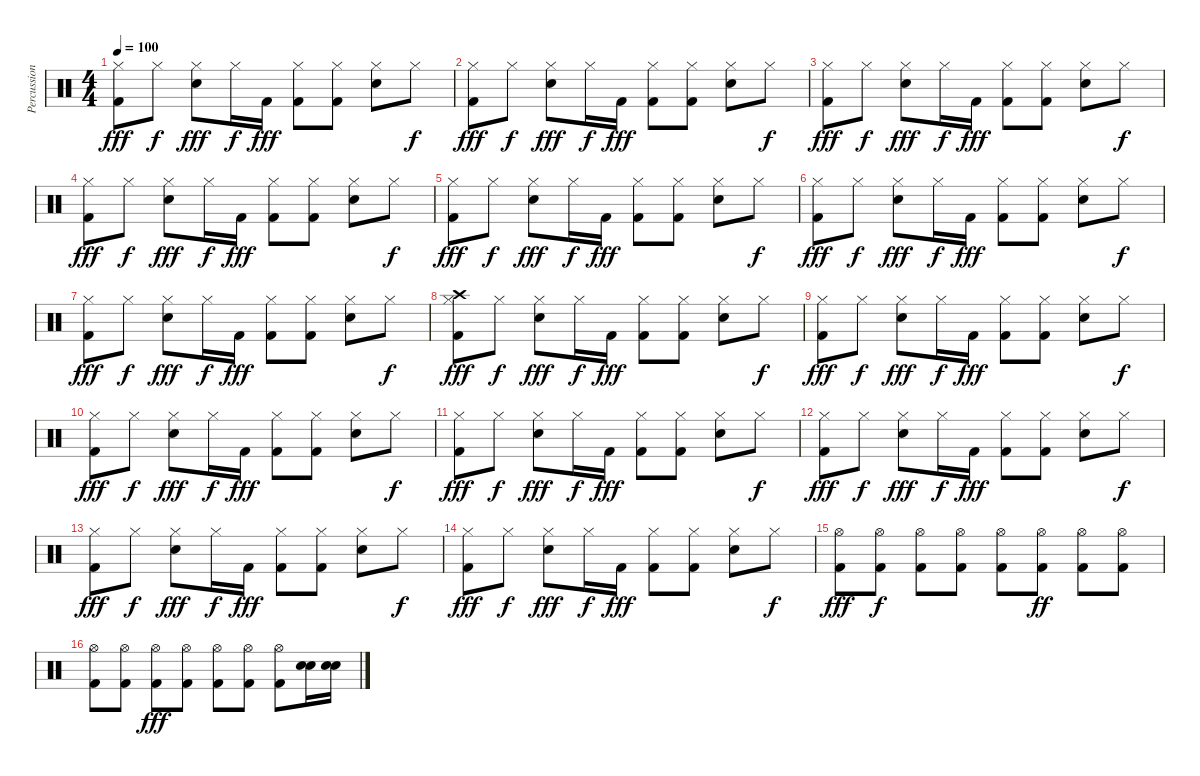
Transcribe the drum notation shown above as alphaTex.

\track ("Percussion" "Percussion") {instrument percussion}
\staff {score}
\articulation defaults
\ts (4 4)
\tempo 100
\clef neutral
\ks c
("Kick (hit) 2" "Hi-Hat (closed)").8{dy fff} "Hi-Hat (closed)".8{dy f} ("Electric Snare (hit)" "Hi-Hat (closed)").8{dy fff} "Hi-Hat (closed)".16{dy f} "Kick (hit) 2".16{dy fff} ("Kick (hit) 2" "Hi-Hat (closed)").8 ("Kick (hit) 2" "Hi-Hat (closed)").8 ("Electric Snare (hit)" "Hi-Hat (closed)").8 "Hi-Hat (closed)".8{dy f} |
("Kick (hit) 2" "Hi-Hat (closed)").8{dy fff} "Hi-Hat (closed)".8{dy f} ("Electric Snare (hit)" "Hi-Hat (closed)").8{dy fff} "Hi-Hat (closed)".16{dy f} "Kick (hit) 2".16{dy fff} ("Kick (hit) 2" "Hi-Hat (closed)").8 ("Kick (hit) 2" "Hi-Hat (closed)").8 ("Electric Snare (hit)" "Hi-Hat (closed)").8 "Hi-Hat (closed)".8{dy f} |
("Kick (hit) 2" "Hi-Hat (closed)").8{dy fff} "Hi-Hat (closed)".8{dy f} ("Electric Snare (hit)" "Hi-Hat (closed)").8{dy fff} "Hi-Hat (closed)".16{dy f} "Kick (hit) 2".16{dy fff} ("Kick (hit) 2" "Hi-Hat (closed)").8 ("Kick (hit) 2" "Hi-Hat (closed)").8 ("Electric Snare (hit)" "Hi-Hat (closed)").8 "Hi-Hat (closed)".8{dy f} |
("Kick (hit) 2" "Hi-Hat (closed)").8{dy fff} "Hi-Hat (closed)".8{dy f} ("Electric Snare (hit)" "Hi-Hat (closed)").8{dy fff} "Hi-Hat (closed)".16{dy f} "Kick (hit) 2".16{dy fff} ("Kick (hit) 2" "Hi-Hat (closed)").8 ("Kick (hit) 2" "Hi-Hat (closed)").8 ("Electric Snare (hit)" "Hi-Hat (closed)").8 "Hi-Hat (closed)".8{dy f} |
("Kick (hit) 2" "Hi-Hat (closed)").8{dy fff} "Hi-Hat (closed)".8{dy f} ("Electric Snare (hit)" "Hi-Hat (closed)").8{dy fff} "Hi-Hat (closed)".16{dy f} "Kick (hit) 2".16{dy fff} ("Kick (hit) 2" "Hi-Hat (closed)").8 ("Kick (hit) 2" "Hi-Hat (closed)").8 ("Electric Snare (hit)" "Hi-Hat (closed)").8 "Hi-Hat (closed)".8{dy f} |
("Kick (hit) 2" "Hi-Hat (closed)").8{dy fff} "Hi-Hat (closed)".8{dy f} ("Electric Snare (hit)" "Hi-Hat (closed)").8{dy fff} "Hi-Hat (closed)".16{dy f} "Kick (hit) 2".16{dy fff} ("Kick (hit) 2" "Hi-Hat (closed)").8 ("Kick (hit) 2" "Hi-Hat (closed)").8 ("Electric Snare (hit)" "Hi-Hat (closed)").8 "Hi-Hat (closed)".8{dy f} |
("Kick (hit) 2" "Hi-Hat (closed)").8{dy fff} "Hi-Hat (closed)".8{dy f} ("Electric Snare (hit)" "Hi-Hat (closed)").8{dy fff} "Hi-Hat (closed)".16{dy f} "Kick (hit) 2".16{dy fff} ("Kick (hit) 2" "Hi-Hat (closed)").8 ("Kick (hit) 2" "Hi-Hat (closed)").8 ("Electric Snare (hit)" "Hi-Hat (closed)").8 "Hi-Hat (closed)".8{dy f} |
("Kick (hit) 2" "Hi-Hat (closed)" "Crash high (hit)").8{dy fff} "Hi-Hat (closed)".8{dy f} ("Electric Snare (hit)" "Hi-Hat (closed)").8{dy fff} "Hi-Hat (closed)".16{dy f} "Kick (hit) 2".16{dy fff} ("Kick (hit) 2" "Hi-Hat (closed)").8 ("Kick (hit) 2" "Hi-Hat (closed)").8 ("Electric Snare (hit)" "Hi-Hat (closed)").8 "Hi-Hat (closed)".8{dy f} |
("Kick (hit) 2" "Hi-Hat (closed)").8{dy fff} "Hi-Hat (closed)".8{dy f} ("Electric Snare (hit)" "Hi-Hat (closed)").8{dy fff} "Hi-Hat (closed)".16{dy f} "Kick (hit) 2".16{dy fff} ("Kick (hit) 2" "Hi-Hat (closed)").8 ("Kick (hit) 2" "Hi-Hat (closed)").8 ("Electric Snare (hit)" "Hi-Hat (closed)").8 "Hi-Hat (closed)".8{dy f} |
("Kick (hit) 2" "Hi-Hat (closed)").8{dy fff} "Hi-Hat (closed)".8{dy f} ("Electric Snare (hit)" "Hi-Hat (closed)").8{dy fff} "Hi-Hat (closed)".16{dy f} "Kick (hit) 2".16{dy fff} ("Kick (hit) 2" "Hi-Hat (closed)").8 ("Kick (hit) 2" "Hi-Hat (closed)").8 ("Electric Snare (hit)" "Hi-Hat (closed)").8 "Hi-Hat (closed)".8{dy f} |
("Kick (hit) 2" "Hi-Hat (closed)").8{dy fff} "Hi-Hat (closed)".8{dy f} ("Electric Snare (hit)" "Hi-Hat (closed)").8{dy fff} "Hi-Hat (closed)".16{dy f} "Kick (hit) 2".16{dy fff} ("Kick (hit) 2" "Hi-Hat (closed)").8 ("Kick (hit) 2" "Hi-Hat (closed)").8 ("Electric Snare (hit)" "Hi-Hat (closed)").8 "Hi-Hat (closed)".8{dy f} |
("Kick (hit) 2" "Hi-Hat (closed)").8{dy fff} "Hi-Hat (closed)".8{dy f} ("Electric Snare (hit)" "Hi-Hat (closed)").8{dy fff} "Hi-Hat (closed)".16{dy f} "Kick (hit) 2".16{dy fff} ("Kick (hit) 2" "Hi-Hat (closed)").8 ("Kick (hit) 2" "Hi-Hat (closed)").8 ("Electric Snare (hit)" "Hi-Hat (closed)").8 "Hi-Hat (closed)".8{dy f} |
("Kick (hit) 2" "Hi-Hat (closed)").8{dy fff} "Hi-Hat (closed)".8{dy f} ("Electric Snare (hit)" "Hi-Hat (closed)").8{dy fff} "Hi-Hat (closed)".16{dy f} "Kick (hit) 2".16{dy fff} ("Kick (hit) 2" "Hi-Hat (closed)").8 ("Kick (hit) 2" "Hi-Hat (closed)").8 ("Electric Snare (hit)" "Hi-Hat (closed)").8 "Hi-Hat (closed)".8{dy f} |
("Kick (hit) 2" "Hi-Hat (closed)").8{dy fff} "Hi-Hat (closed)".8{dy f} ("Electric Snare (hit)" "Hi-Hat (closed)").8{dy fff} "Hi-Hat (closed)".16{dy f} "Kick (hit) 2".16{dy fff} ("Kick (hit) 2" "Hi-Hat (closed)").8 ("Kick (hit) 2" "Hi-Hat (closed)").8 ("Electric Snare (hit)" "Hi-Hat (closed)").8 "Hi-Hat (closed)".8{dy f} |
("Kick (hit) 2" "Hi-Hat (open)").8{dy fff} ("Kick (hit) 2" "Hi-Hat (open)").8{dy f} ("Kick (hit) 2" "Hi-Hat (open)").8 ("Kick (hit) 2" "Hi-Hat (open)").8 ("Kick (hit) 2" "Hi-Hat (open)").8 ("Kick (hit) 2" "Hi-Hat (open)").8{dy ff} ("Kick (hit) 2" "Hi-Hat (open)").8 ("Kick (hit) 2" "Hi-Hat (open)").8 |
("Kick (hit) 2" "Hi-Hat (open)").8 ("Kick (hit) 2" "Hi-Hat (open)").8 ("Kick (hit) 2" "Hi-Hat (open)").8{dy fff} ("Kick (hit) 2" "Hi-Hat (open)").8 ("Kick (hit) 2" "Hi-Hat (open)").8 ("Kick (hit) 2" "Hi-Hat (open)").8 ("Kick (hit) 2" "Hi-Hat (open)").8 ("Electric Snare (hit)" "Electric Snare (hit)").16 ("Electric Snare (hit)" "Electric Snare (hit)").16
